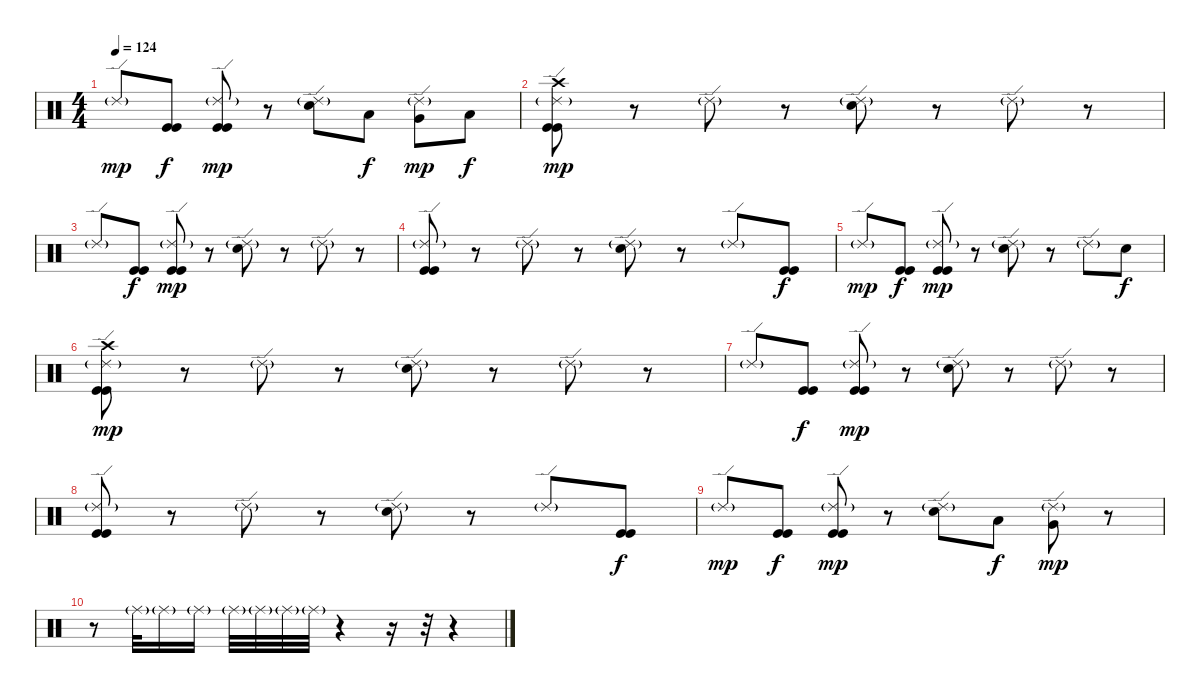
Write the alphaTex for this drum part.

\track "" {instrument percussion}
\staff {score}
\articulation defaults
\ts (4 4)
\tempo 124
\clef neutral
\ks c "Ride (edge) 2"{g}.8{dy mp}
("Kick (hit)" "Kick (hit)").8{dy f} ("Ride (edge) 2"{g} "Kick (hit)" "Kick (hit)").8{dy mp} r.8 ("Ride (edge) 2"{g} "Electric Snare (hit)").8 "Low Tom (hit)".8{dy f} ("Ride (edge) 2"{g} "Very Low Tom (hit)").8{dy mp} "Low Floor Tom (hit)".8{dy f} |
("Crash high (hit)" "Ride (edge) 2"{g} "Kick (hit)" "Kick (hit)").8{dy mp} r.8 "Ride (edge) 2"{g}.8 r.8 ("Ride (edge) 2"{g} "Electric Snare (hit)").8 r.8 "Ride (edge) 2"{g}.8 r.8 |
"Ride (edge) 2"{g}.8 ("Kick (hit)" "Kick (hit)").8{dy f} ("Ride (edge) 2"{g} "Kick (hit)" "Kick (hit)").8{dy mp} r.8 ("Ride (edge) 2"{g} "Electric Snare (hit)").8 r.8 "Ride (edge) 2"{g}.8 r.8 |
("Ride (edge) 2"{g} "Kick (hit)" "Kick (hit)").8 r.8 "Ride (edge) 2"{g}.8 r.8{txt ""} ("Ride (edge) 2"{g} "Electric Snare (hit)").8 r.8 "Ride (edge) 2"{g}.8 ("Kick (hit)" "Kick (hit)").8{dy f} |
"Ride (edge) 2"{g}.8{dy mp} ("Kick (hit)" "Kick (hit)").8{dy f} ("Ride (edge) 2"{g} "Kick (hit)" "Kick (hit)").8{dy mp} r.8 ("Ride (edge) 2"{g} "Electric Snare (hit)").8 r.8 "Ride (edge) 2"{g}.8 "Electric Snare (hit)".8{dy f} |
("Crash high (hit)" "Ride (edge) 2"{g} "Kick (hit)" "Kick (hit)").8{dy mp} r.8 "Ride (edge) 2"{g}.8 r.8 ("Ride (edge) 2"{g} "Electric Snare (hit)").8 r.8 "Ride (edge) 2"{g}.8 r.8 |
"Ride (edge) 2"{g}.8 ("Kick (hit)" "Kick (hit)").8{dy f} ("Ride (edge) 2"{g} "Kick (hit)" "Kick (hit)").8{dy mp} r.8 ("Ride (edge) 2"{g} "Electric Snare (hit)").8 r.8 "Ride (edge) 2"{g}.8 r.8 |
("Ride (edge) 2"{g} "Kick (hit)" "Kick (hit)").8 r.8 "Ride (edge) 2"{g}.8 r.8 ("Ride (edge) 2"{g} "Electric Snare (hit)").8 r.8 "Ride (edge) 2"{g}.8 ("Kick (hit)" "Kick (hit)").8{dy f} |
"Ride (edge) 2"{g}.8{dy mp} ("Kick (hit)" "Kick (hit)").8{dy f} ("Ride (edge) 2"{g} "Kick (hit)" "Kick (hit)").8{dy mp} r.8 ("Ride (edge) 2"{g} "Electric Snare (hit)").8 "Low Tom (hit)".8{dy f} ("Ride (edge) 2"{g} "Very Low Tom (hit)").8{dy mp} r.8 |
r.8 "Ride (middle)"{g}.32 "Ride (middle)"{g}.16 "Ride (middle)"{g}.16 "Ride (middle)"{g}.32 "Ride (middle)"{g}.32 "Ride (middle)"{g}.32 "Ride (middle)"{g}.32 r.4 r.16 r.32 r.4
